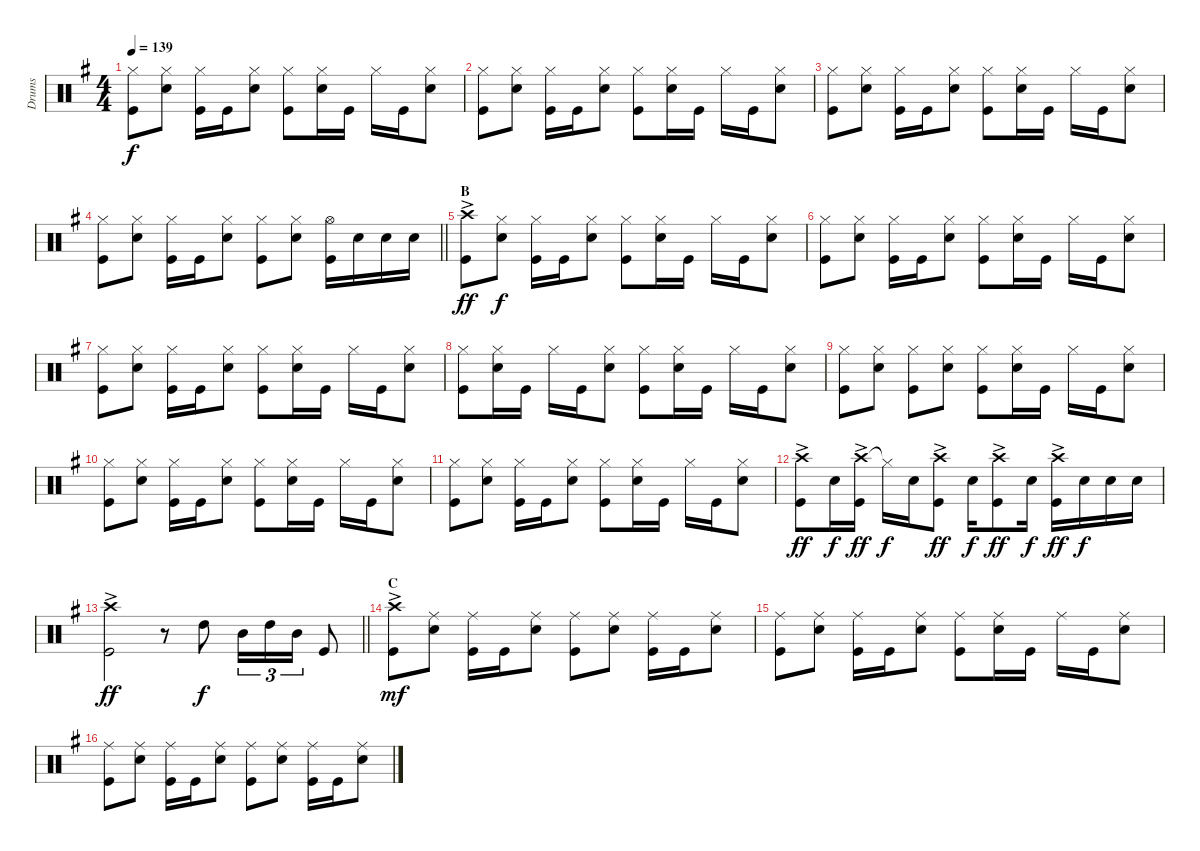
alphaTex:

\track ("Drums" "Drums") {instrument percussion}
\staff {score}
\articulation defaults
\ts (4 4)
\tempo 139
\clef neutral
\ks g
("Hi-Hat (closed)" "Kick (hit)").8{dy f} ("Hi-Hat (closed)" "Snare (hit) 2").8 ("Hi-Hat (closed)" "Kick (hit)").16 "Kick (hit)".16 ("Hi-Hat (closed)" "Snare (hit) 2").8 ("Hi-Hat (closed)" "Kick (hit)").8 ("Hi-Hat (closed)" "Snare (hit) 2").16 "Kick (hit)".16 "Hi-Hat (closed)".16 "Kick (hit)".16 ("Hi-Hat (closed)" "Snare (hit) 2").8 |
("Hi-Hat (closed)" "Kick (hit)").8 ("Hi-Hat (closed)" "Snare (hit) 2").8 ("Hi-Hat (closed)" "Kick (hit)").16 "Kick (hit)".16 ("Hi-Hat (closed)" "Snare (hit) 2").8 ("Hi-Hat (closed)" "Kick (hit)").8 ("Hi-Hat (closed)" "Snare (hit) 2").16 "Kick (hit)".16 "Hi-Hat (closed)".16 "Kick (hit)".16 ("Hi-Hat (closed)" "Snare (hit) 2").8 |
("Hi-Hat (closed)" "Kick (hit)").8 ("Hi-Hat (closed)" "Snare (hit) 2").8 ("Hi-Hat (closed)" "Kick (hit)").16 "Kick (hit)".16 ("Hi-Hat (closed)" "Snare (hit) 2").8 ("Hi-Hat (closed)" "Kick (hit)").8 ("Hi-Hat (closed)" "Snare (hit) 2").16 "Kick (hit)".16 "Hi-Hat (closed)".16 "Kick (hit)".16 ("Hi-Hat (closed)" "Snare (hit) 2").8 |
\barLineRight lightlight
("Hi-Hat (closed)" "Kick (hit)").8 ("Hi-Hat (closed)" "Snare (hit) 2").8 ("Hi-Hat (closed)" "Kick (hit)").16 "Kick (hit)".16 ("Hi-Hat (closed)" "Snare (hit) 2").8 ("Hi-Hat (closed)" "Kick (hit)").8 ("Hi-Hat (closed)" "Snare (hit) 2").8 ("Hi-Hat (open)" "Kick (hit)").16 "Snare (hit) 2".16 "Snare (hit) 2".16 "Snare (hit) 2".16 |
\section ("" "B")
("Crash high (hit)"{ac} "Kick (hit)").8{dy ff} ("Hi-Hat (closed)" "Snare (hit) 2").8{dy f} ("Hi-Hat (closed)" "Kick (hit)").16 "Kick (hit)".16 ("Hi-Hat (closed)" "Snare (hit) 2").8 ("Hi-Hat (closed)" "Kick (hit)").8 ("Hi-Hat (closed)" "Snare (hit) 2").16 "Kick (hit)".16 "Hi-Hat (closed)".16 "Kick (hit)".16 ("Hi-Hat (closed)" "Snare (hit) 2").8 |
("Hi-Hat (closed)" "Kick (hit)").8 ("Hi-Hat (closed)" "Snare (hit) 2").8 ("Hi-Hat (closed)" "Kick (hit)").16 "Kick (hit)".16 ("Hi-Hat (closed)" "Snare (hit) 2").8 ("Hi-Hat (closed)" "Kick (hit)").8 ("Hi-Hat (closed)" "Snare (hit) 2").16 "Kick (hit)".16 "Hi-Hat (closed)".16 "Kick (hit)".16 ("Hi-Hat (closed)" "Snare (hit) 2").8 |
("Hi-Hat (closed)" "Kick (hit)").8 ("Hi-Hat (closed)" "Snare (hit) 2").8 ("Hi-Hat (closed)" "Kick (hit)").16 "Kick (hit)".16 ("Hi-Hat (closed)" "Snare (hit) 2").8 ("Hi-Hat (closed)" "Kick (hit)").8 ("Hi-Hat (closed)" "Snare (hit) 2").16 "Kick (hit)".16 "Hi-Hat (closed)".16 "Kick (hit)".16 ("Hi-Hat (closed)" "Snare (hit) 2").8 |
("Hi-Hat (closed)" "Kick (hit)").8 ("Hi-Hat (closed)" "Snare (hit) 2").16 "Kick (hit)".16 "Hi-Hat (closed)".16 "Kick (hit)".16 ("Hi-Hat (closed)" "Snare (hit) 2").8 ("Hi-Hat (closed)" "Kick (hit)").8 ("Hi-Hat (closed)" "Snare (hit) 2").16 "Kick (hit)".16 "Hi-Hat (closed)".16 "Kick (hit)".16 ("Hi-Hat (closed)" "Snare (hit) 2").8 |
("Hi-Hat (closed)" "Kick (hit)").8 ("Hi-Hat (closed)" "Snare (hit) 2").8 ("Hi-Hat (closed)" "Kick (hit)").8 ("Hi-Hat (closed)" "Snare (hit) 2").8 ("Hi-Hat (closed)" "Kick (hit)").8 ("Hi-Hat (closed)" "Snare (hit) 2").16 "Kick (hit)".16 "Hi-Hat (closed)".16 "Kick (hit)".16 ("Hi-Hat (closed)" "Snare (hit) 2").8 |
("Hi-Hat (closed)" "Kick (hit)").8 ("Hi-Hat (closed)" "Snare (hit) 2").8 ("Hi-Hat (closed)" "Kick (hit)").16 "Kick (hit)".16 ("Hi-Hat (closed)" "Snare (hit) 2").8 ("Hi-Hat (closed)" "Kick (hit)").8 ("Hi-Hat (closed)" "Snare (hit) 2").16 "Kick (hit)".16 "Hi-Hat (closed)".16 "Kick (hit)".16 ("Hi-Hat (closed)" "Snare (hit) 2").8 |
("Hi-Hat (closed)" "Kick (hit)").8 ("Hi-Hat (closed)" "Snare (hit) 2").8 ("Hi-Hat (closed)" "Kick (hit)").16 "Kick (hit)".16 ("Hi-Hat (closed)" "Snare (hit) 2").8 ("Hi-Hat (closed)" "Kick (hit)").8 ("Hi-Hat (closed)" "Snare (hit) 2").16 "Kick (hit)".16 "Hi-Hat (closed)".16 "Kick (hit)".16 ("Hi-Hat (closed)" "Snare (hit) 2").8 |
("Crash high (hit)"{ac} "Kick (hit)").8{dy ff} "Snare (hit) 2".16{dy f} ("Crash high (hit)"{ac} "Kick (hit)").16{dy ff} "Hi-Hat (closed)"{t}.16{dy f} "Snare (hit) 2".16 ("Crash high (hit)"{ac} "Kick (hit)").8{dy ff} "Snare (hit) 2".16{dy f} ("Crash high (hit)"{ac} "Kick (hit)").8{dy ff} "Snare (hit) 2".16{dy f} ("Crash high (hit)"{ac} "Kick (hit)").16{dy ff} "Snare (hit) 2".16{dy f} "Snare (hit) 2".16 "Snare (hit) 2".16 |
\barLineRight lightlight
("Crash high (hit)"{ac} "Kick (hit)").2{dy ff} r.8 "High Tom (hit)".8{dy f} "Mid Tom (hit)".16{tu (3 2)} "High Tom (hit)".16{tu (3 2)} "Mid Tom (hit)".16{tu (3 2)} "Kick (hit)".8 |
\section ("" "C")
("Crash high (hit)"{ac} "Kick (hit)").8{dy mf} ("Ride (middle)" "Snare (hit) 2").8 ("Ride (middle)" "Kick (hit)").16 "Kick (hit)".16 ("Ride (middle)" "Snare (hit) 2").8 ("Ride (middle)" "Kick (hit)").8 ("Ride (middle)" "Snare (hit) 2").8 ("Ride (middle)" "Kick (hit)").16 "Kick (hit)".16 ("Ride (middle)" "Snare (hit) 2").8 |
("Ride (middle)" "Kick (hit)").8 ("Ride (middle)" "Snare (hit) 2").8 ("Ride (middle)" "Kick (hit)").16 "Kick (hit)".16 ("Ride (middle)" "Snare (hit) 2").8 ("Ride (middle)" "Kick (hit)").8 ("Ride (middle)" "Snare (hit) 2").16 "Kick (hit)".16 "Ride (middle)".16 "Kick (hit)".16 ("Ride (middle)" "Snare (hit) 2").8 |
("Ride (middle)" "Kick (hit)").8 ("Ride (middle)" "Snare (hit) 2").8 ("Ride (middle)" "Kick (hit)").16 "Kick (hit)".16 ("Ride (middle)" "Snare (hit) 2").8 ("Ride (middle)" "Kick (hit)").8 ("Ride (middle)" "Snare (hit) 2").8 ("Ride (middle)" "Kick (hit)").16 "Kick (hit)".16 ("Ride (middle)" "Snare (hit) 2").8
